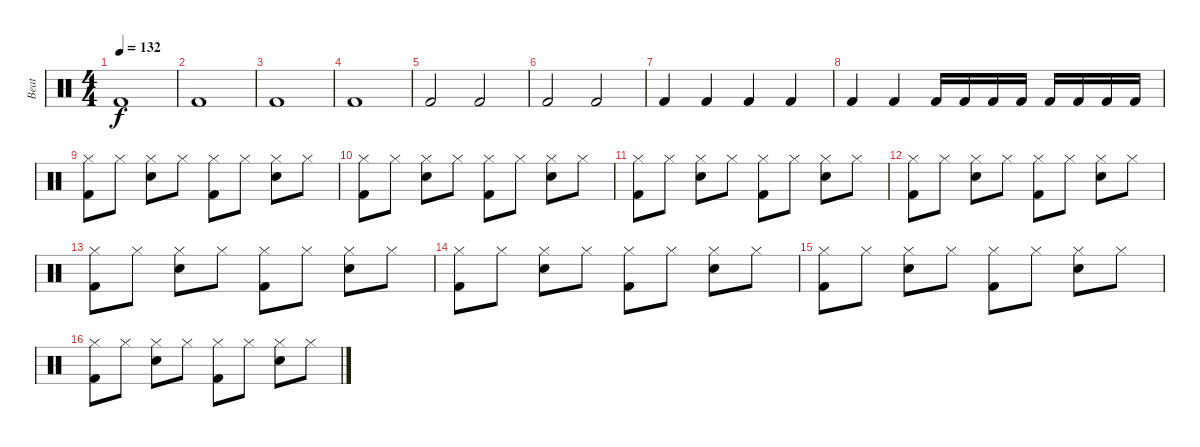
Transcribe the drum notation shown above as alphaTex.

\track ("Beat" "Beat") {instrument percussion}
\staff {score}
\articulation defaults
\ts (4 4)
\tempo 132
\clef neutral
\ks c "Kick (hit) 2".1{dy f}
|
"Kick (hit) 2".1 |
"Kick (hit) 2".1 |
"Kick (hit) 2".1 |
"Kick (hit) 2".2 "Kick (hit) 2".2 |
"Kick (hit) 2".2 "Kick (hit) 2".2 |
"Kick (hit) 2".4 "Kick (hit) 2".4 "Kick (hit) 2".4 "Kick (hit) 2".4 |
"Kick (hit) 2".4 "Kick (hit) 2".4 "Kick (hit) 2".16 "Kick (hit) 2".16 "Kick (hit) 2".16 "Kick (hit) 2".16 "Kick (hit) 2".16 "Kick (hit) 2".16 "Kick (hit) 2".16 "Kick (hit) 2".16 |
("Kick (hit) 2" "Hi-Hat (closed)").8 "Hi-Hat (closed)".8 ("Electric Snare (hit)" "Hi-Hat (closed)").8 "Hi-Hat (closed)".8 ("Kick (hit) 2" "Hi-Hat (closed)").8 "Hi-Hat (closed)".8 ("Electric Snare (hit)" "Hi-Hat (closed)").8 "Hi-Hat (closed)".8 |
("Kick (hit) 2" "Hi-Hat (closed)").8 "Hi-Hat (closed)".8 ("Electric Snare (hit)" "Hi-Hat (closed)").8 "Hi-Hat (closed)".8 ("Kick (hit) 2" "Hi-Hat (closed)").8 "Hi-Hat (closed)".8 ("Electric Snare (hit)" "Hi-Hat (closed)").8 "Hi-Hat (closed)".8 |
("Kick (hit) 2" "Hi-Hat (closed)").8 "Hi-Hat (closed)".8 ("Electric Snare (hit)" "Hi-Hat (closed)").8 "Hi-Hat (closed)".8 ("Kick (hit) 2" "Hi-Hat (closed)").8 "Hi-Hat (closed)".8 ("Electric Snare (hit)" "Hi-Hat (closed)").8 "Hi-Hat (closed)".8 |
("Kick (hit) 2" "Hi-Hat (closed)").8 "Hi-Hat (closed)".8 ("Electric Snare (hit)" "Hi-Hat (closed)").8 "Hi-Hat (closed)".8 ("Kick (hit) 2" "Hi-Hat (closed)").8 "Hi-Hat (closed)".8 ("Electric Snare (hit)" "Hi-Hat (closed)").8 "Hi-Hat (closed)".8 |
("Kick (hit) 2" "Hi-Hat (closed)").8 "Hi-Hat (closed)".8 ("Electric Snare (hit)" "Hi-Hat (closed)").8 "Hi-Hat (closed)".8 ("Kick (hit) 2" "Hi-Hat (closed)").8 "Hi-Hat (closed)".8 ("Electric Snare (hit)" "Hi-Hat (closed)").8 "Hi-Hat (closed)".8 |
("Kick (hit) 2" "Hi-Hat (closed)").8 "Hi-Hat (closed)".8 ("Electric Snare (hit)" "Hi-Hat (closed)").8 "Hi-Hat (closed)".8 ("Kick (hit) 2" "Hi-Hat (closed)").8 "Hi-Hat (closed)".8 ("Electric Snare (hit)" "Hi-Hat (closed)").8 "Hi-Hat (closed)".8 |
("Kick (hit) 2" "Hi-Hat (closed)").8 "Hi-Hat (closed)".8 ("Electric Snare (hit)" "Hi-Hat (closed)").8 "Hi-Hat (closed)".8 ("Kick (hit) 2" "Hi-Hat (closed)").8 "Hi-Hat (closed)".8 ("Electric Snare (hit)" "Hi-Hat (closed)").8 "Hi-Hat (closed)".8 |
("Kick (hit) 2" "Hi-Hat (closed)").8 "Hi-Hat (closed)".8 ("Electric Snare (hit)" "Hi-Hat (closed)").8 "Hi-Hat (closed)".8 ("Kick (hit) 2" "Hi-Hat (closed)").8 "Hi-Hat (closed)".8 ("Electric Snare (hit)" "Hi-Hat (closed)").8 "Hi-Hat (closed)".8
